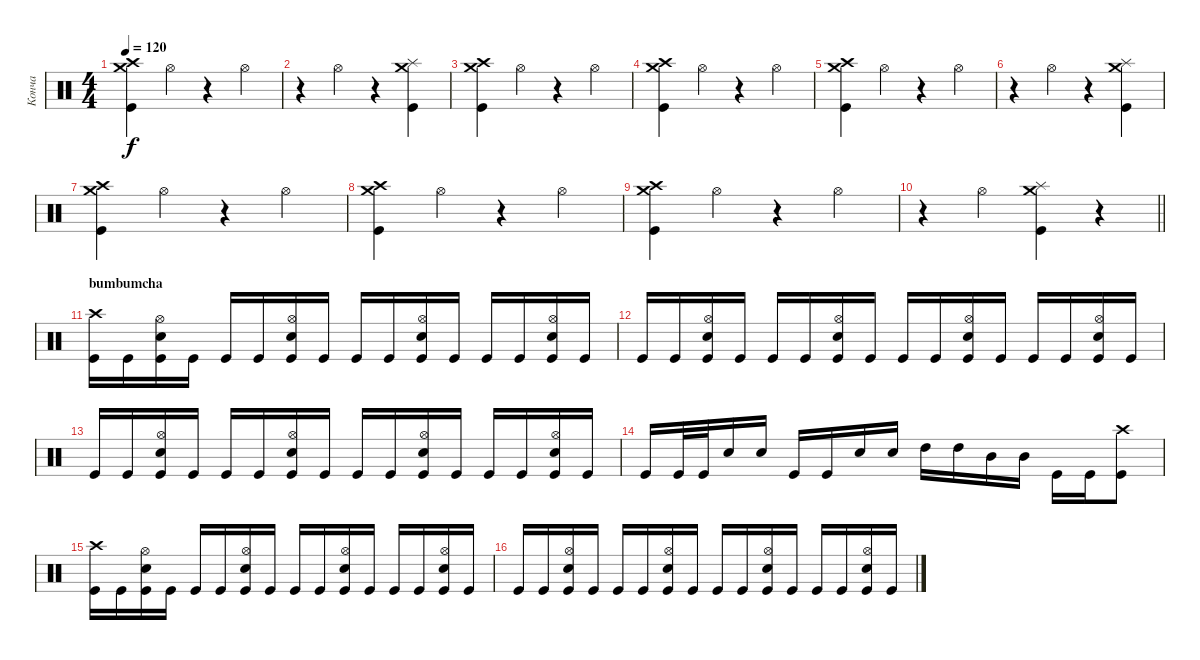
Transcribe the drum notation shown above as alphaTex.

\track ("Конча" "Конча") {instrument percussion}
\staff {score}
\articulation defaults
\ts (4 4)
\tempo 120
\clef neutral
\ks c
("Crash medium (hit)" "Crash high (hit)" "Kick (hit)").4{dy f} "Hi-Hat (open)".4 r.4 "Hi-Hat (open)".4 |
r.4 "Hi-Hat (open)".4 r.4 ("Crash medium (hit)" "Kick (hit)" "Splash (hit)").4 |
("Crash medium (hit)" "Crash high (hit)" "Kick (hit)").4 "Hi-Hat (open)".4 r.4 "Hi-Hat (open)".4 |
("Crash medium (hit)" "Crash high (hit)" "Kick (hit)").4 "Hi-Hat (open)".4 r.4 "Hi-Hat (open)".4 |
("Crash medium (hit)" "Crash high (hit)" "Kick (hit)").4 "Hi-Hat (open)".4 r.4 "Hi-Hat (open)".4 |
r.4 "Hi-Hat (open)".4 r.4 ("Crash medium (hit)" "Kick (hit)" "Splash (hit)").4 |
("Crash medium (hit)" "Crash high (hit)" "Kick (hit)").4 "Hi-Hat (open)".4 r.4 "Hi-Hat (open)".4 |
("Crash medium (hit)" "Crash high (hit)" "Kick (hit)").4 "Hi-Hat (open)".4 r.4 "Hi-Hat (open)".4 |
("Crash medium (hit)" "Crash high (hit)" "Kick (hit)").4 "Hi-Hat (open)".4 r.4 "Hi-Hat (open)".4 |
\barLineRight lightlight
r.4 "Hi-Hat (open)".4 ("Crash medium (hit)" "Kick (hit)" "Splash (hit)").4 r.4 |
\section ("" "bumbumcha")
("Kick (hit)" "Crash high (hit)").16 "Kick (hit)".16 ("Kick (hit)" "Electric Snare (hit)" "Hi-Hat (open)").16 "Kick (hit)".16 "Kick (hit)".16 "Kick (hit)".16 ("Kick (hit)" "Electric Snare (hit)" "Hi-Hat (open)").16 "Kick (hit)".16 "Kick (hit)".16 "Kick (hit)".16 ("Kick (hit)" "Electric Snare (hit)" "Hi-Hat (open)").16 "Kick (hit)".16 "Kick (hit)".16 "Kick (hit)".16 ("Kick (hit)" "Electric Snare (hit)" "Hi-Hat (open)").16 "Kick (hit)".16 |
"Kick (hit)".16 "Kick (hit)".16 ("Kick (hit)" "Electric Snare (hit)" "Hi-Hat (open)").16 "Kick (hit)".16 "Kick (hit)".16 "Kick (hit)".16 ("Kick (hit)" "Electric Snare (hit)" "Hi-Hat (open)").16 "Kick (hit)".16 "Kick (hit)".16 "Kick (hit)".16 ("Kick (hit)" "Electric Snare (hit)" "Hi-Hat (open)").16 "Kick (hit)".16 "Kick (hit)".16 "Kick (hit)".16 ("Kick (hit)" "Electric Snare (hit)" "Hi-Hat (open)").16 "Kick (hit)".16 |
"Kick (hit)".16 "Kick (hit)".16 ("Kick (hit)" "Electric Snare (hit)" "Hi-Hat (open)").16 "Kick (hit)".16 "Kick (hit)".16 "Kick (hit)".16 ("Kick (hit)" "Electric Snare (hit)" "Hi-Hat (open)").16 "Kick (hit)".16 "Kick (hit)".16 "Kick (hit)".16 ("Kick (hit)" "Electric Snare (hit)" "Hi-Hat (open)").16 "Kick (hit)".16 "Kick (hit)".16 "Kick (hit)".16 ("Kick (hit)" "Electric Snare (hit)" "Hi-Hat (open)").16 "Kick (hit)".16 |
"Kick (hit)".16 "Kick (hit)".32 "Kick (hit)".32 "Electric Snare (hit)".16 "Electric Snare (hit)".16 "Kick (hit)".16 "Kick (hit)".16 "Electric Snare (hit)".16 "Electric Snare (hit)".16 "High Tom (hit)".16 "High Tom (hit)".16 "Mid Tom (hit)".16 "Mid Tom (hit)".16 "Kick (hit)".16 "Kick (hit)".16 ("Crash high (hit)" "Kick (hit)").8 |
("Kick (hit)" "Crash high (hit)").16 "Kick (hit)".16 ("Kick (hit)" "Electric Snare (hit)" "Hi-Hat (open)").16 "Kick (hit)".16 "Kick (hit)".16 "Kick (hit)".16 ("Kick (hit)" "Electric Snare (hit)" "Hi-Hat (open)").16 "Kick (hit)".16 "Kick (hit)".16 "Kick (hit)".16 ("Kick (hit)" "Electric Snare (hit)" "Hi-Hat (open)").16 "Kick (hit)".16 "Kick (hit)".16 "Kick (hit)".16 ("Kick (hit)" "Electric Snare (hit)" "Hi-Hat (open)").16 "Kick (hit)".16 |
"Kick (hit)".16 "Kick (hit)".16 ("Kick (hit)" "Electric Snare (hit)" "Hi-Hat (open)").16 "Kick (hit)".16 "Kick (hit)".16 "Kick (hit)".16 ("Kick (hit)" "Electric Snare (hit)" "Hi-Hat (open)").16 "Kick (hit)".16 "Kick (hit)".16 "Kick (hit)".16 ("Kick (hit)" "Electric Snare (hit)" "Hi-Hat (open)").16 "Kick (hit)".16 "Kick (hit)".16 "Kick (hit)".16 ("Kick (hit)" "Electric Snare (hit)" "Hi-Hat (open)").16 "Kick (hit)".16
